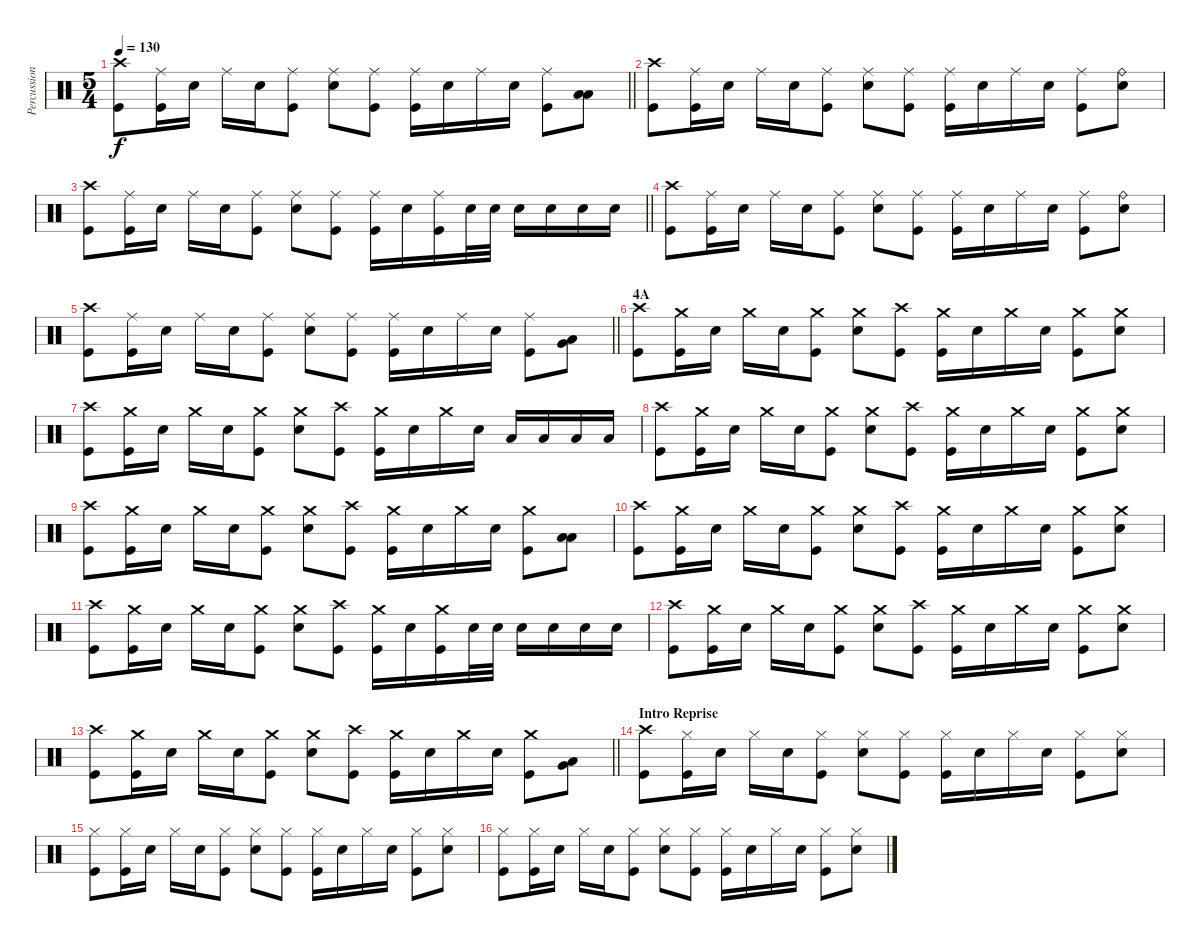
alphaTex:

\track ("Percussion" "Percussion") {instrument percussion}
\staff {score}
\articulation defaults
\ts (5 4)
\tempo 130
\clef neutral
\barLineRight lightlight
\ks c
("Crash high (hit)" "Kick (hit)").8{dy f} ("Ride (middle)" "Kick (hit)").16 "Snare (hit) 2".16 "Ride (middle)".16 "Snare (hit) 2".16 ("Ride (middle)" "Kick (hit)").8 ("Ride (middle)" "Snare (hit) 2").8 ("Ride (middle)" "Kick (hit)").8 ("Ride (middle)" "Kick (hit)").16 "Snare (hit) 2".16 "Ride (middle)".16 "Snare (hit) 2".16 ("Ride (middle)" "Kick (hit)").8 ("Low Tom (hit)" "Low Floor Tom (hit)").8 |
("Crash high (hit)" "Kick (hit)").8 ("Ride (middle)" "Kick (hit)").16 "Snare (hit) 2".16 "Ride (middle)".16 "Snare (hit) 2".16 ("Ride (middle)" "Kick (hit)").8 ("Ride (middle)" "Snare (hit) 2").8 ("Ride (middle)" "Kick (hit)").8 ("Ride (middle)" "Kick (hit)").16 "Snare (hit) 2".16 "Ride (middle)".16 "Snare (hit) 2".16 ("Ride (middle)" "Kick (hit)").8 ("Ride (bell)" "Snare (hit) 2").8 |
\barLineRight lightlight
("Crash high (hit)" "Kick (hit)").8 ("Ride (middle)" "Kick (hit)").16 "Snare (hit) 2".16 "Ride (middle)".16 "Snare (hit) 2".16 ("Ride (middle)" "Kick (hit)").8 ("Ride (middle)" "Snare (hit) 2").8 ("Ride (middle)" "Kick (hit)").8 ("Ride (middle)" "Kick (hit)").16 "Snare (hit) 2".16 ("Ride (middle)" "Kick (hit)").16 "Snare (hit) 2".32 "Snare (hit) 2".32 "Snare (hit) 2".16 "Snare (hit) 2".16 "Snare (hit) 2".16 "Snare (hit) 2".16 |
("Crash high (hit)" "Kick (hit)").8 ("Ride (middle)" "Kick (hit)").16 "Snare (hit) 2".16 "Ride (middle)".16 "Snare (hit) 2".16 ("Ride (middle)" "Kick (hit)").8 ("Ride (middle)" "Snare (hit) 2").8 ("Ride (middle)" "Kick (hit)").8 ("Ride (middle)" "Kick (hit)").16 "Snare (hit) 2".16 "Ride (middle)".16 "Snare (hit) 2".16 ("Ride (middle)" "Kick (hit)").8 ("Ride (bell)" "Snare (hit) 2").8 |
\barLineRight lightlight
("Crash high (hit)" "Kick (hit)").8 ("Ride (middle)" "Kick (hit)").16 "Snare (hit) 2".16 "Ride (middle)".16 "Snare (hit) 2".16 ("Ride (middle)" "Kick (hit)").8 ("Ride (middle)" "Snare (hit) 2").8 ("Ride (middle)" "Kick (hit)").8 ("Ride (middle)" "Kick (hit)").16 "Snare (hit) 2".16 "Ride (middle)".16 "Snare (hit) 2".16 ("Ride (middle)" "Kick (hit)").8 ("Very Low Tom (hit)" "Low Floor Tom (hit)").8 |
\section ("" "4A")
("Crash high (hit)" "Kick (hit)").8 ("Crash medium (hit)" "Kick (hit)").16 "Snare (hit) 2".16 "Crash medium (hit)".16 "Snare (hit) 2".16 ("Crash medium (hit)" "Kick (hit)").8 ("Crash medium (hit)" "Snare (hit) 2").8 ("Crash high (hit)" "Kick (hit)").8 ("Crash medium (hit)" "Kick (hit)").16 "Snare (hit) 2".16 "Crash medium (hit)".16 "Snare (hit) 2".16 ("Crash medium (hit)" "Kick (hit)").8 ("Crash medium (hit)" "Snare (hit) 2").8 |
("Crash high (hit)" "Kick (hit)").8 ("Crash medium (hit)" "Kick (hit)").16 "Snare (hit) 2".16 "Crash medium (hit)".16 "Snare (hit) 2".16 ("Crash medium (hit)" "Kick (hit)").8 ("Crash medium (hit)" "Snare (hit) 2").8 ("Crash high (hit)" "Kick (hit)").8 ("Crash medium (hit)" "Kick (hit)").16 "Snare (hit) 2".16 "Crash medium (hit)".16 "Snare (hit) 2".16 "Low Tom (hit)".16 "Low Tom (hit)".16 "Low Floor Tom (hit)".16 "Low Floor Tom (hit)".16 |
("Crash high (hit)" "Kick (hit)").8 ("Crash medium (hit)" "Kick (hit)").16 "Snare (hit) 2".16 "Crash medium (hit)".16 "Snare (hit) 2".16 ("Crash medium (hit)" "Kick (hit)").8 ("Crash medium (hit)" "Snare (hit) 2").8 ("Crash high (hit)" "Kick (hit)").8 ("Crash medium (hit)" "Kick (hit)").16 "Snare (hit) 2".16 "Crash medium (hit)".16 "Snare (hit) 2".16 ("Crash medium (hit)" "Kick (hit)").8 ("Crash medium (hit)" "Snare (hit) 2").8 |
("Crash high (hit)" "Kick (hit)").8 ("Crash medium (hit)" "Kick (hit)").16 "Snare (hit) 2".16 "Crash medium (hit)".16 "Snare (hit) 2".16 ("Crash medium (hit)" "Kick (hit)").8 ("Crash medium (hit)" "Snare (hit) 2").8 ("Crash high (hit)" "Kick (hit)").8 ("Crash medium (hit)" "Kick (hit)").16 "Snare (hit) 2".16 "Crash medium (hit)".16 "Snare (hit) 2".16 ("Crash medium (hit)" "Kick (hit)").8 ("Low Tom (hit)" "Low Floor Tom (hit)").8 |
("Crash high (hit)" "Kick (hit)").8 ("Crash medium (hit)" "Kick (hit)").16 "Snare (hit) 2".16 "Crash medium (hit)".16 "Snare (hit) 2".16 ("Crash medium (hit)" "Kick (hit)").8 ("Crash medium (hit)" "Snare (hit) 2").8 ("Crash high (hit)" "Kick (hit)").8 ("Crash medium (hit)" "Kick (hit)").16 "Snare (hit) 2".16 "Crash medium (hit)".16 "Snare (hit) 2".16 ("Crash medium (hit)" "Kick (hit)").8 ("Crash medium (hit)" "Snare (hit) 2").8 |
("Crash high (hit)" "Kick (hit)").8 ("Crash medium (hit)" "Kick (hit)").16 "Snare (hit) 2".16 "Crash medium (hit)".16 "Snare (hit) 2".16 ("Crash medium (hit)" "Kick (hit)").8 ("Crash medium (hit)" "Snare (hit) 2").8 ("Crash high (hit)" "Kick (hit)").8 ("Crash medium (hit)" "Kick (hit)").16 "Snare (hit) 2".16 ("Crash medium (hit)" "Kick (hit)").16 "Snare (hit) 2".32 "Snare (hit) 2".32 "Snare (hit) 2".16 "Snare (hit) 2".16 "Snare (hit) 2".16 "Snare (hit) 2".16 |
("Crash high (hit)" "Kick (hit)").8 ("Crash medium (hit)" "Kick (hit)").16 "Snare (hit) 2".16 "Crash medium (hit)".16 "Snare (hit) 2".16 ("Crash medium (hit)" "Kick (hit)").8 ("Crash medium (hit)" "Snare (hit) 2").8 ("Crash high (hit)" "Kick (hit)").8 ("Crash medium (hit)" "Kick (hit)").16 "Snare (hit) 2".16 "Crash medium (hit)".16 "Snare (hit) 2".16 ("Crash medium (hit)" "Kick (hit)").8 ("Crash medium (hit)" "Snare (hit) 2").8 |
\barLineRight lightlight
("Crash high (hit)" "Kick (hit)").8 ("Crash medium (hit)" "Kick (hit)").16 "Snare (hit) 2".16 "Crash medium (hit)".16 "Snare (hit) 2".16 ("Crash medium (hit)" "Kick (hit)").8 ("Crash medium (hit)" "Snare (hit) 2").8 ("Crash high (hit)" "Kick (hit)").8 ("Crash medium (hit)" "Kick (hit)").16 "Snare (hit) 2".16 "Crash medium (hit)".16 "Snare (hit) 2".16 ("Crash medium (hit)" "Kick (hit)").8 ("Very Low Tom (hit)" "Low Floor Tom (hit)").8 |
\section ("" "Intro Reprise")
("Crash high (hit)" "Kick (hit)").8 ("Hi-Hat (closed)" "Kick (hit)").16 "Snare (hit) 2".16 "Hi-Hat (closed)".16 "Snare (hit) 2".16 ("Hi-Hat (closed)" "Kick (hit)").8 ("Hi-Hat (closed)" "Snare (hit) 2").8 ("Hi-Hat (closed)" "Kick (hit)").8 ("Hi-Hat (closed)" "Kick (hit)").16 "Snare (hit) 2".16 "Hi-Hat (closed)".16 "Snare (hit) 2".16 ("Hi-Hat (closed)" "Kick (hit)").8 ("Hi-Hat (closed)" "Snare (hit) 2").8 |
("Hi-Hat (closed)" "Kick (hit)").8 ("Hi-Hat (closed)" "Kick (hit)").16 "Snare (hit) 2".16 "Hi-Hat (closed)".16 "Snare (hit) 2".16 ("Hi-Hat (closed)" "Kick (hit)").8 ("Hi-Hat (closed)" "Snare (hit) 2").8 ("Hi-Hat (closed)" "Kick (hit)").8 ("Hi-Hat (closed)" "Kick (hit)").16 "Snare (hit) 2".16 "Hi-Hat (closed)".16 "Snare (hit) 2".16 ("Hi-Hat (closed)" "Kick (hit)").8 ("Hi-Hat (closed)" "Snare (hit) 2").8 |
("Hi-Hat (closed)" "Kick (hit)").8 ("Hi-Hat (closed)" "Kick (hit)").16 "Snare (hit) 2".16 "Hi-Hat (closed)".16 "Snare (hit) 2".16 ("Hi-Hat (closed)" "Kick (hit)").8 ("Hi-Hat (closed)" "Snare (hit) 2").8 ("Hi-Hat (closed)" "Kick (hit)").8 ("Hi-Hat (closed)" "Kick (hit)").16 "Snare (hit) 2".16 "Hi-Hat (closed)".16 "Snare (hit) 2".16 ("Hi-Hat (closed)" "Kick (hit)").8 ("Hi-Hat (closed)" "Snare (hit) 2").8
